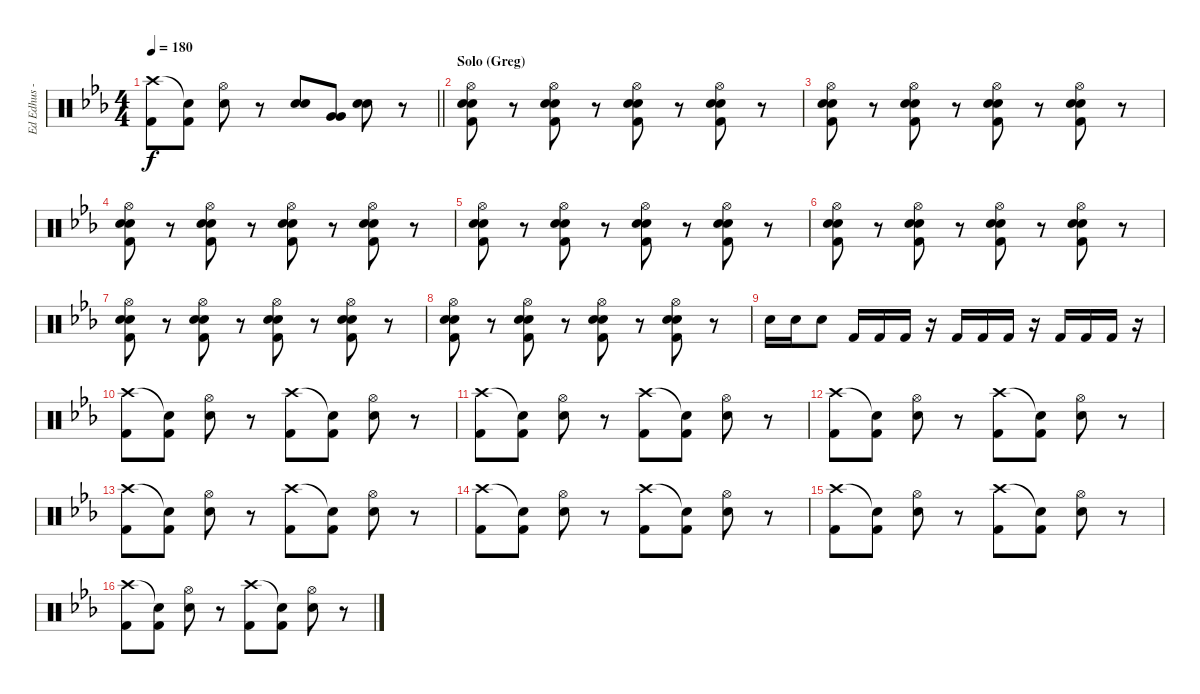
\track ("Ed Edhus - Drums" "Ed Edhus -") {instrument percussion bank 127}
\staff {score}
\articulation defaults
\ts (4 4)
\tempo 180
\clef neutral
\barLineRight lightlight
\ks eb
("Crash high (hit)" "Kick (hit) 2").8{dy f} ("Snare (hit)"{t} "Kick (hit) 2").8 ("Hi-Hat (open)" "Snare (hit) 2").8 r.8 ("Snare (hit) 2" "Snare (hit) 2").8 ("Very Low Tom (hit)" "Very Low Tom (hit)").8 ("Snare (hit) 2" "Snare (hit) 2").8 r.8 |
\section ("" "Solo (Greg)")
("Hi-Hat (open)" "Snare (hit) 2" "Snare (hit) 2" "Kick (hit) 2").8 r.8 ("Hi-Hat (open)" "Snare (hit) 2" "Snare (hit) 2" "Kick (hit) 2").8 r.8 ("Hi-Hat (open)" "Snare (hit) 2" "Snare (hit) 2" "Kick (hit) 2").8 r.8 ("Hi-Hat (open)" "Snare (hit) 2" "Snare (hit) 2" "Kick (hit) 2").8 r.8 |
("Hi-Hat (open)" "Snare (hit) 2" "Snare (hit) 2" "Kick (hit) 2").8 r.8 ("Hi-Hat (open)" "Snare (hit) 2" "Snare (hit) 2" "Kick (hit) 2").8 r.8 ("Hi-Hat (open)" "Snare (hit) 2" "Snare (hit) 2" "Kick (hit) 2").8 r.8 ("Hi-Hat (open)" "Snare (hit) 2" "Snare (hit) 2" "Kick (hit) 2").8 r.8 |
("Hi-Hat (open)" "Snare (hit) 2" "Snare (hit) 2" "Kick (hit) 2").8 r.8 ("Hi-Hat (open)" "Snare (hit) 2" "Snare (hit) 2" "Kick (hit) 2").8 r.8 ("Hi-Hat (open)" "Snare (hit) 2" "Snare (hit) 2" "Kick (hit) 2").8 r.8 ("Hi-Hat (open)" "Snare (hit) 2" "Snare (hit) 2" "Kick (hit) 2").8 r.8 |
("Hi-Hat (open)" "Snare (hit) 2" "Snare (hit) 2" "Kick (hit) 2").8 r.8 ("Hi-Hat (open)" "Snare (hit) 2" "Snare (hit) 2" "Kick (hit) 2").8 r.8 ("Hi-Hat (open)" "Snare (hit) 2" "Snare (hit) 2" "Kick (hit) 2").8 r.8 ("Hi-Hat (open)" "Snare (hit) 2" "Snare (hit) 2" "Kick (hit) 2").8 r.8 |
("Hi-Hat (open)" "Snare (hit) 2" "Snare (hit) 2" "Kick (hit) 2").8 r.8 ("Hi-Hat (open)" "Snare (hit) 2" "Snare (hit) 2" "Kick (hit) 2").8 r.8 ("Hi-Hat (open)" "Snare (hit) 2" "Snare (hit) 2" "Kick (hit) 2").8 r.8 ("Hi-Hat (open)" "Snare (hit) 2" "Snare (hit) 2" "Kick (hit) 2").8 r.8 |
("Hi-Hat (open)" "Snare (hit) 2" "Snare (hit) 2" "Kick (hit) 2").8 r.8 ("Hi-Hat (open)" "Snare (hit) 2" "Snare (hit) 2" "Kick (hit) 2").8 r.8 ("Hi-Hat (open)" "Snare (hit) 2" "Snare (hit) 2" "Kick (hit) 2").8 r.8 ("Hi-Hat (open)" "Snare (hit) 2" "Snare (hit) 2" "Kick (hit) 2").8 r.8 |
("Hi-Hat (open)" "Snare (hit) 2" "Snare (hit) 2" "Kick (hit) 2").8 r.8 ("Hi-Hat (open)" "Snare (hit) 2" "Snare (hit) 2" "Kick (hit) 2").8 r.8 ("Hi-Hat (open)" "Snare (hit) 2" "Snare (hit) 2" "Kick (hit) 2").8 r.8 ("Hi-Hat (open)" "Snare (hit) 2" "Snare (hit) 2" "Kick (hit) 2").8 r.8 |
"Snare (hit) 2".16 "Snare (hit) 2".16 "Snare (hit) 2".8 "Kick (hit) 2".16 "Kick (hit) 2".16 "Kick (hit) 2".16 r.16 "Kick (hit) 2".16 "Kick (hit) 2".16 "Kick (hit) 2".16 r.16 "Kick (hit) 2".16 "Kick (hit) 2".16 "Kick (hit) 2".16 r.16 |
("Crash high (hit)" "Kick (hit) 2").8 ("Snare (hit)"{t} "Kick (hit) 2").8 ("Hi-Hat (open)" "Snare (hit) 2").8 r.8 ("Crash high (hit)" "Kick (hit) 2").8 ("Snare (hit)"{t} "Kick (hit) 2").8 ("Hi-Hat (open)" "Snare (hit) 2").8 r.8 |
("Crash high (hit)" "Kick (hit) 2").8 ("Snare (hit)"{t} "Kick (hit) 2").8 ("Hi-Hat (open)" "Snare (hit) 2").8 r.8 ("Crash high (hit)" "Kick (hit) 2").8 ("Snare (hit)"{t} "Kick (hit) 2").8 ("Hi-Hat (open)" "Snare (hit) 2").8 r.8 |
("Crash high (hit)" "Kick (hit) 2").8 ("Snare (hit)"{t} "Kick (hit) 2").8 ("Hi-Hat (open)" "Snare (hit) 2").8 r.8 ("Crash high (hit)" "Kick (hit) 2").8 ("Snare (hit)"{t} "Kick (hit) 2").8 ("Hi-Hat (open)" "Snare (hit) 2").8 r.8 |
("Crash high (hit)" "Kick (hit) 2").8 ("Snare (hit)"{t} "Kick (hit) 2").8 ("Hi-Hat (open)" "Snare (hit) 2").8 r.8 ("Crash high (hit)" "Kick (hit) 2").8 ("Snare (hit)"{t} "Kick (hit) 2").8 ("Hi-Hat (open)" "Snare (hit) 2").8 r.8 |
("Crash high (hit)" "Kick (hit) 2").8 ("Snare (hit)"{t} "Kick (hit) 2").8 ("Hi-Hat (open)" "Snare (hit) 2").8 r.8 ("Crash high (hit)" "Kick (hit) 2").8 ("Snare (hit)"{t} "Kick (hit) 2").8 ("Hi-Hat (open)" "Snare (hit) 2").8 r.8 |
("Crash high (hit)" "Kick (hit) 2").8 ("Snare (hit)"{t} "Kick (hit) 2").8 ("Hi-Hat (open)" "Snare (hit) 2").8 r.8 ("Crash high (hit)" "Kick (hit) 2").8 ("Snare (hit)"{t} "Kick (hit) 2").8 ("Hi-Hat (open)" "Snare (hit) 2").8 r.8 |
("Crash high (hit)" "Kick (hit) 2").8 ("Snare (hit)"{t} "Kick (hit) 2").8 ("Hi-Hat (open)" "Snare (hit) 2").8 r.8 ("Crash high (hit)" "Kick (hit) 2").8 ("Snare (hit)"{t} "Kick (hit) 2").8 ("Hi-Hat (open)" "Snare (hit) 2").8 r.8
